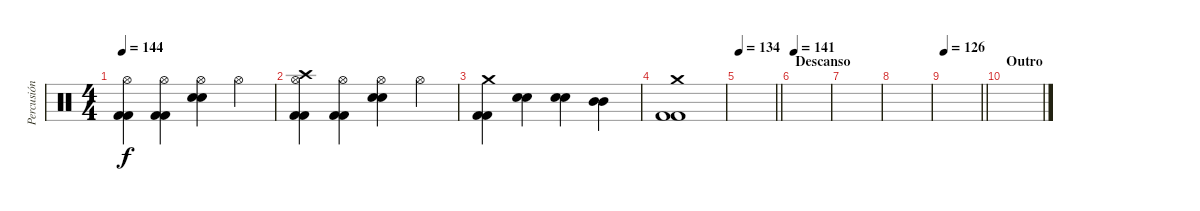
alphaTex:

\track ("Percusión" "Percusión") {instrument percussion}
\staff {score}
\articulation defaults
\ts (4 4)
\tempo 144
\clef neutral
\ks c
("Hi-Hat (open)" "Kick (hit) 2" "Kick (hit) 2").4{dy f} ("Hi-Hat (open)" "Kick (hit) 2" "Kick (hit) 2").4 ("Hi-Hat (open)" "Electric Snare (hit)" "Electric Snare (hit)").4 "Hi-Hat (open)".4 |
("Crash high (hit)" "Hi-Hat (open)" "Kick (hit) 2" "Kick (hit) 2").4 ("Hi-Hat (open)" "Kick (hit) 2" "Kick (hit) 2").4 ("Hi-Hat (open)" "Electric Snare (hit)" "Electric Snare (hit)").4 "Hi-Hat (open)".4 |
("Crash medium (hit)" "Kick (hit) 2" "Kick (hit) 2").4 ("Electric Snare (hit)" "Electric Snare (hit)").4 ("Electric Snare (hit)" "Electric Snare (hit)").4 ("Mid Tom (hit)" "Mid Tom (hit)").4 |
("Crash medium (hit)" "Kick (hit) 2" "Kick (hit) 2").1 |
\tempo 134
\barLineRight lightlight
|
\section ("" "Descanso")
\tempo 141
|
|
|
\tempo 126
\barLineRight lightlight
|
\section ("" "Outro")
